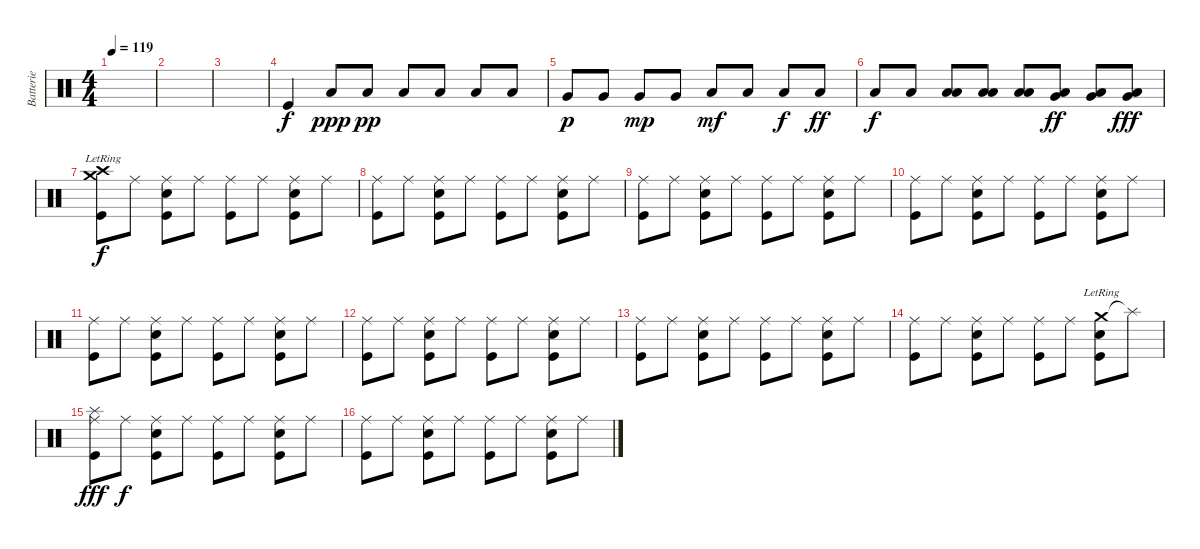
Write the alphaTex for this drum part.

\track ("Batterie" "Batterie") {instrument percussion}
\staff {score}
\articulation defaults
\ts (4 4)
\tempo 119
\clef neutral
\ks c
|
|
|
"Kick (hit)".4{dy f} "Low Tom (hit)".8{dy ppp} "Low Tom (hit)".8{dy pp} "Low Tom (hit)".8 "Low Tom (hit)".8 "Low Tom (hit)".8 "Low Tom (hit)".8 |
"Very Low Tom (hit)".8{dy p} "Very Low Tom (hit)".8 "Very Low Tom (hit)".8{dy mp} "Very Low Tom (hit)".8 "Low Floor Tom (hit)".8{dy mf} "Low Floor Tom (hit)".8 "Low Floor Tom (hit)".8{dy f} "Low Floor Tom (hit)".8{dy ff} |
"Low Floor Tom (hit)".8{dy f} "Low Floor Tom (hit)".8 ("Low Floor Tom (hit)" "Low Tom (hit)").8 ("Low Floor Tom (hit)" "Low Tom (hit)").8 ("Low Floor Tom (hit)" "Low Tom (hit)").8 ("Low Floor Tom (hit)" "Very Low Tom (hit)").8{dy ff} ("Low Floor Tom (hit)" "Very Low Tom (hit)").8 ("Low Floor Tom (hit)" "Very Low Tom (hit)").8{dy fff} |
("Kick (hit)" "Crash high (hit)"{lr} "Crash medium (hit)"{lr}).8{dy f} "Ride (middle)".8 ("Ride (middle)" "Kick (hit)" "Electric Snare (hit)").8 "Ride (middle)".8 ("Ride (middle)" "Kick (hit)").8 "Ride (middle)".8 ("Ride (middle)" "Kick (hit)" "Electric Snare (hit)").8 "Ride (middle)".8 |
("Ride (middle)" "Kick (hit)").8 "Ride (middle)".8 ("Ride (middle)" "Kick (hit)" "Electric Snare (hit)").8 "Ride (middle)".8 ("Ride (middle)" "Kick (hit)").8 "Ride (middle)".8 ("Ride (middle)" "Kick (hit)" "Electric Snare (hit)").8 "Ride (middle)".8 |
("Ride (middle)" "Kick (hit)").8 "Ride (middle)".8 ("Ride (middle)" "Kick (hit)" "Electric Snare (hit)").8 "Ride (middle)".8 ("Ride (middle)" "Kick (hit)").8 "Ride (middle)".8 ("Ride (middle)" "Kick (hit)" "Electric Snare (hit)").8 "Ride (middle)".8 |
("Ride (middle)" "Kick (hit)").8 "Ride (middle)".8 ("Ride (middle)" "Kick (hit)" "Electric Snare (hit)").8 "Ride (middle)".8 ("Ride (middle)" "Kick (hit)").8 "Ride (middle)".8 ("Ride (middle)" "Kick (hit)" "Electric Snare (hit)").8 "Ride (middle)".8 |
("Ride (middle)" "Kick (hit)").8 "Ride (middle)".8 ("Ride (middle)" "Kick (hit)" "Electric Snare (hit)").8 "Ride (middle)".8 ("Ride (middle)" "Kick (hit)").8 "Ride (middle)".8 ("Ride (middle)" "Kick (hit)" "Electric Snare (hit)").8 "Ride (middle)".8 |
("Ride (middle)" "Kick (hit)").8 "Ride (middle)".8 ("Ride (middle)" "Kick (hit)" "Electric Snare (hit)").8 "Ride (middle)".8 ("Ride (middle)" "Kick (hit)").8 "Ride (middle)".8 ("Ride (middle)" "Kick (hit)" "Electric Snare (hit)").8 "Ride (middle)".8 |
("Ride (middle)" "Kick (hit)").8 "Ride (middle)".8 ("Ride (middle)" "Kick (hit)" "Electric Snare (hit)").8 "Ride (middle)".8 ("Ride (middle)" "Kick (hit)").8 "Ride (middle)".8 ("Ride (middle)" "Kick (hit)" "Electric Snare (hit)").8 "Ride (middle)".8 |
("Ride (middle)" "Kick (hit)").8 "Ride (middle)".8 ("Ride (middle)" "Kick (hit)" "Electric Snare (hit)").8 "Ride (middle)".8 ("Ride (middle)" "Kick (hit)").8 "Ride (middle)".8 ("Crash medium (hit)"{lr} "Kick (hit)" "Electric Snare (hit)").8 "Splash (hit)"{t}.8 |
("Ride (middle)" "Kick (hit)" "Splash (hit)").8{dy fff} "Ride (middle)".8{dy f} ("Ride (middle)" "Kick (hit)" "Electric Snare (hit)").8 "Ride (middle)".8 ("Ride (middle)" "Kick (hit)").8 "Ride (middle)".8 ("Ride (middle)" "Kick (hit)" "Electric Snare (hit)").8 "Ride (middle)".8 |
("Ride (middle)" "Kick (hit)").8 "Ride (middle)".8 ("Ride (middle)" "Kick (hit)" "Electric Snare (hit)").8 "Ride (middle)".8 ("Ride (middle)" "Kick (hit)").8 "Ride (middle)".8 ("Ride (middle)" "Kick (hit)" "Electric Snare (hit)").8 "Ride (middle)".8
